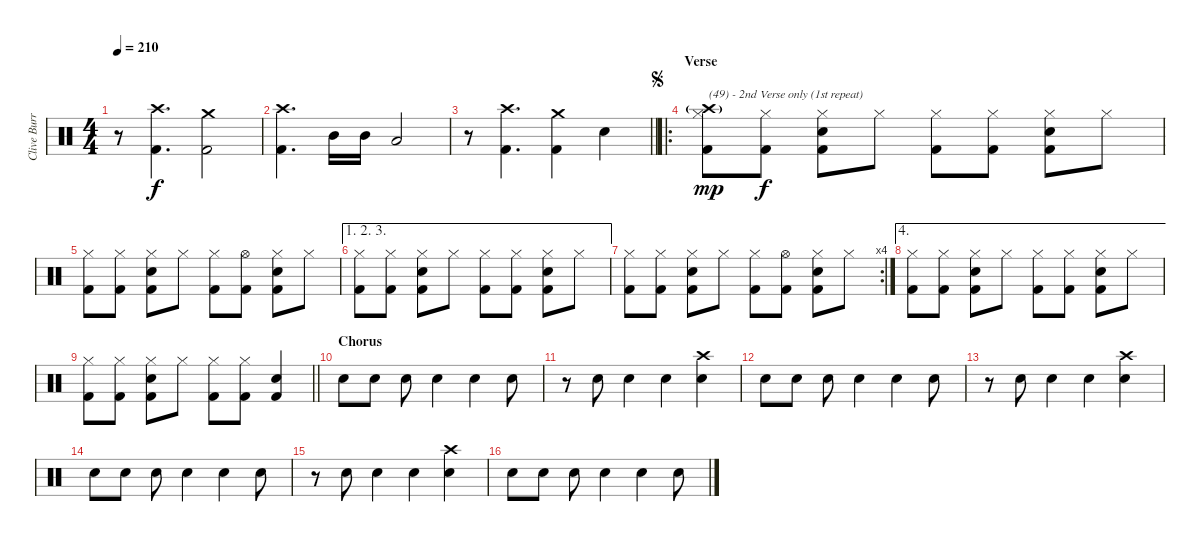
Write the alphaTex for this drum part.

\track ("Clive Burr" "Clive Burr") {instrument percussion}
\staff {score}
\articulation defaults
\ts (4 4)
\tempo 210
\clef neutral
\ks c
r.8{dy f} ("Crash high (hit)" "Kick (hit) 2").4{d} ("Crash medium (hit)" "Kick (hit) 2").2 |
("Crash high (hit)" "Kick (hit) 2").4{d} "Mid Tom (hit)".16 "Mid Tom (hit)".16 "Low Tom (hit)".2 |
\barLineRight lightlight
r.8 ("Crash high (hit)" "Kick (hit) 2").4{d} ("Crash medium (hit)" "Kick (hit) 2").4 "Snare (hit) 2".4 |
\ro
\section ("" "Verse")
\jump segno
("Crash high (hit)"{g} "Hi-Hat (closed)" "Kick (hit) 2").8{txt "(49) - 2nd Verse only (1st repeat)" dy mp} ("Hi-Hat (closed)" "Kick (hit) 2").8{dy f} ("Snare (hit) 2" "Hi-Hat (closed)" "Kick (hit) 2").8 "Hi-Hat (closed)".8 ("Hi-Hat (closed)" "Kick (hit) 2").8 ("Hi-Hat (closed)" "Kick (hit) 2").8 ("Snare (hit) 2" "Hi-Hat (closed)" "Kick (hit) 2").8 "Hi-Hat (closed)".8 |
("Hi-Hat (closed)" "Kick (hit) 2").8 ("Hi-Hat (closed)" "Kick (hit) 2").8 ("Snare (hit) 2" "Hi-Hat (closed)" "Kick (hit) 2").8 "Hi-Hat (closed)".8 ("Hi-Hat (closed)" "Kick (hit) 2").8 ("Hi-Hat (open)" "Kick (hit) 2").8 ("Snare (hit) 2" "Hi-Hat (closed)" "Kick (hit) 2").8 "Hi-Hat (closed)".8 |
\ae (1 2 3)
("Hi-Hat (closed)" "Kick (hit) 2").8 ("Hi-Hat (closed)" "Kick (hit) 2").8 ("Snare (hit) 2" "Hi-Hat (closed)" "Kick (hit) 2").8 "Hi-Hat (closed)".8 ("Hi-Hat (closed)" "Kick (hit) 2").8 ("Hi-Hat (closed)" "Kick (hit) 2").8 ("Snare (hit) 2" "Hi-Hat (closed)" "Kick (hit) 2").8 "Hi-Hat (closed)".8 |
\rc 4
("Hi-Hat (closed)" "Kick (hit) 2").8 ("Hi-Hat (closed)" "Kick (hit) 2").8 ("Snare (hit) 2" "Hi-Hat (closed)" "Kick (hit) 2").8 "Hi-Hat (closed)".8 ("Hi-Hat (closed)" "Kick (hit) 2").8 ("Hi-Hat (open)" "Kick (hit) 2").8 ("Snare (hit) 2" "Hi-Hat (closed)" "Kick (hit) 2").8 "Hi-Hat (closed)".8 |
\ae 4
("Hi-Hat (closed)" "Kick (hit) 2").8 ("Hi-Hat (closed)" "Kick (hit) 2").8 ("Snare (hit) 2" "Hi-Hat (closed)" "Kick (hit) 2").8 "Hi-Hat (closed)".8 ("Hi-Hat (closed)" "Kick (hit) 2").8 ("Hi-Hat (closed)" "Kick (hit) 2").8 ("Snare (hit) 2" "Hi-Hat (closed)" "Kick (hit) 2").8 "Hi-Hat (closed)".8 |
\barLineRight lightlight
("Hi-Hat (closed)" "Kick (hit) 2").8 ("Hi-Hat (closed)" "Kick (hit) 2").8 ("Snare (hit) 2" "Hi-Hat (closed)" "Kick (hit) 2").8 "Hi-Hat (closed)".8 ("Hi-Hat (closed)" "Kick (hit) 2").8 ("Hi-Hat (closed)" "Kick (hit) 2").8 ("Snare (hit) 2" "Kick (hit) 2").4 |
\section ("" "Chorus")
"Snare (hit) 2".8 "Snare (hit) 2".8 "Snare (hit) 2".8 "Snare (hit) 2".4 "Snare (hit) 2".4 "Snare (hit) 2".8 |
r.8 "Snare (hit) 2".8 "Snare (hit) 2".4 "Snare (hit) 2".4 ("Crash high (hit)" "Snare (hit) 2").4 |
"Snare (hit) 2".8 "Snare (hit) 2".8 "Snare (hit) 2".8 "Snare (hit) 2".4 "Snare (hit) 2".4 "Snare (hit) 2".8 |
r.8 "Snare (hit) 2".8 "Snare (hit) 2".4 "Snare (hit) 2".4 ("Crash high (hit)" "Snare (hit) 2").4 |
"Snare (hit) 2".8 "Snare (hit) 2".8 "Snare (hit) 2".8 "Snare (hit) 2".4 "Snare (hit) 2".4 "Snare (hit) 2".8 |
r.8 "Snare (hit) 2".8 "Snare (hit) 2".4 "Snare (hit) 2".4 ("Crash high (hit)" "Snare (hit) 2").4 |
"Snare (hit) 2".8 "Snare (hit) 2".8 "Snare (hit) 2".8 "Snare (hit) 2".4 "Snare (hit) 2".4 "Snare (hit) 2".8
